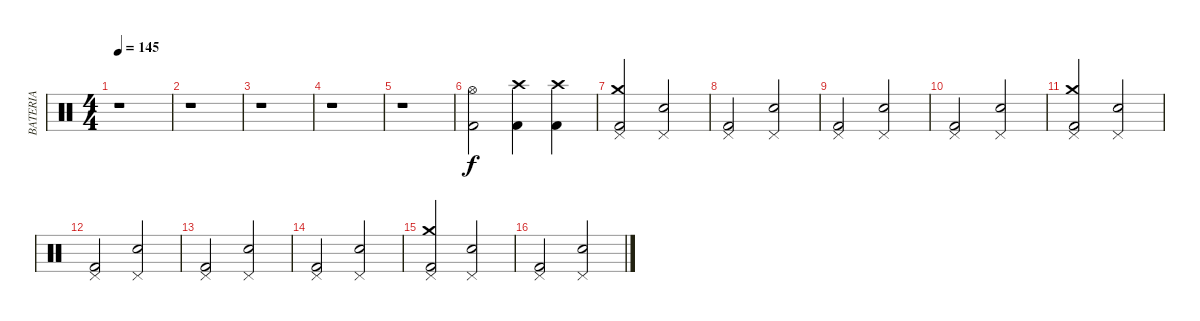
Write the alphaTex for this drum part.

\track ("BATERIA" "BATERIA") {instrument percussion}
\staff {score}
\articulation defaults
\ts (4 4)
\tempo 145
\clef neutral
\ks c
r.1{dy f} |
r.1 |
r.1 |
r.1 |
r.1 |
("Hi-Hat (open)" "Kick (hit) 2").2 ("Crash high (hit)" "Kick (hit) 2").4 ("Crash high (hit)" "Kick (hit) 2").4 |
("Crash medium (hit)" "Pedal Hi-Hat (hit)" "Kick (hit) 2").2 ("Pedal Hi-Hat (hit)" "Snare (hit) 2").2 |
("Pedal Hi-Hat (hit)" "Kick (hit) 2").2 ("Pedal Hi-Hat (hit)" "Snare (hit) 2").2 |
("Pedal Hi-Hat (hit)" "Kick (hit) 2").2 ("Pedal Hi-Hat (hit)" "Snare (hit) 2").2 |
("Pedal Hi-Hat (hit)" "Kick (hit) 2").2 ("Pedal Hi-Hat (hit)" "Snare (hit) 2").2 |
("Crash medium (hit)" "Pedal Hi-Hat (hit)" "Kick (hit) 2").2 ("Pedal Hi-Hat (hit)" "Snare (hit) 2").2 |
("Pedal Hi-Hat (hit)" "Kick (hit) 2").2 ("Pedal Hi-Hat (hit)" "Snare (hit) 2").2 |
("Pedal Hi-Hat (hit)" "Kick (hit) 2").2 ("Pedal Hi-Hat (hit)" "Snare (hit) 2").2 |
("Pedal Hi-Hat (hit)" "Kick (hit) 2").2 ("Pedal Hi-Hat (hit)" "Snare (hit) 2").2 |
("Crash medium (hit)" "Pedal Hi-Hat (hit)" "Kick (hit) 2").2 ("Pedal Hi-Hat (hit)" "Snare (hit) 2").2 |
("Pedal Hi-Hat (hit)" "Kick (hit) 2").2 ("Pedal Hi-Hat (hit)" "Snare (hit) 2").2
